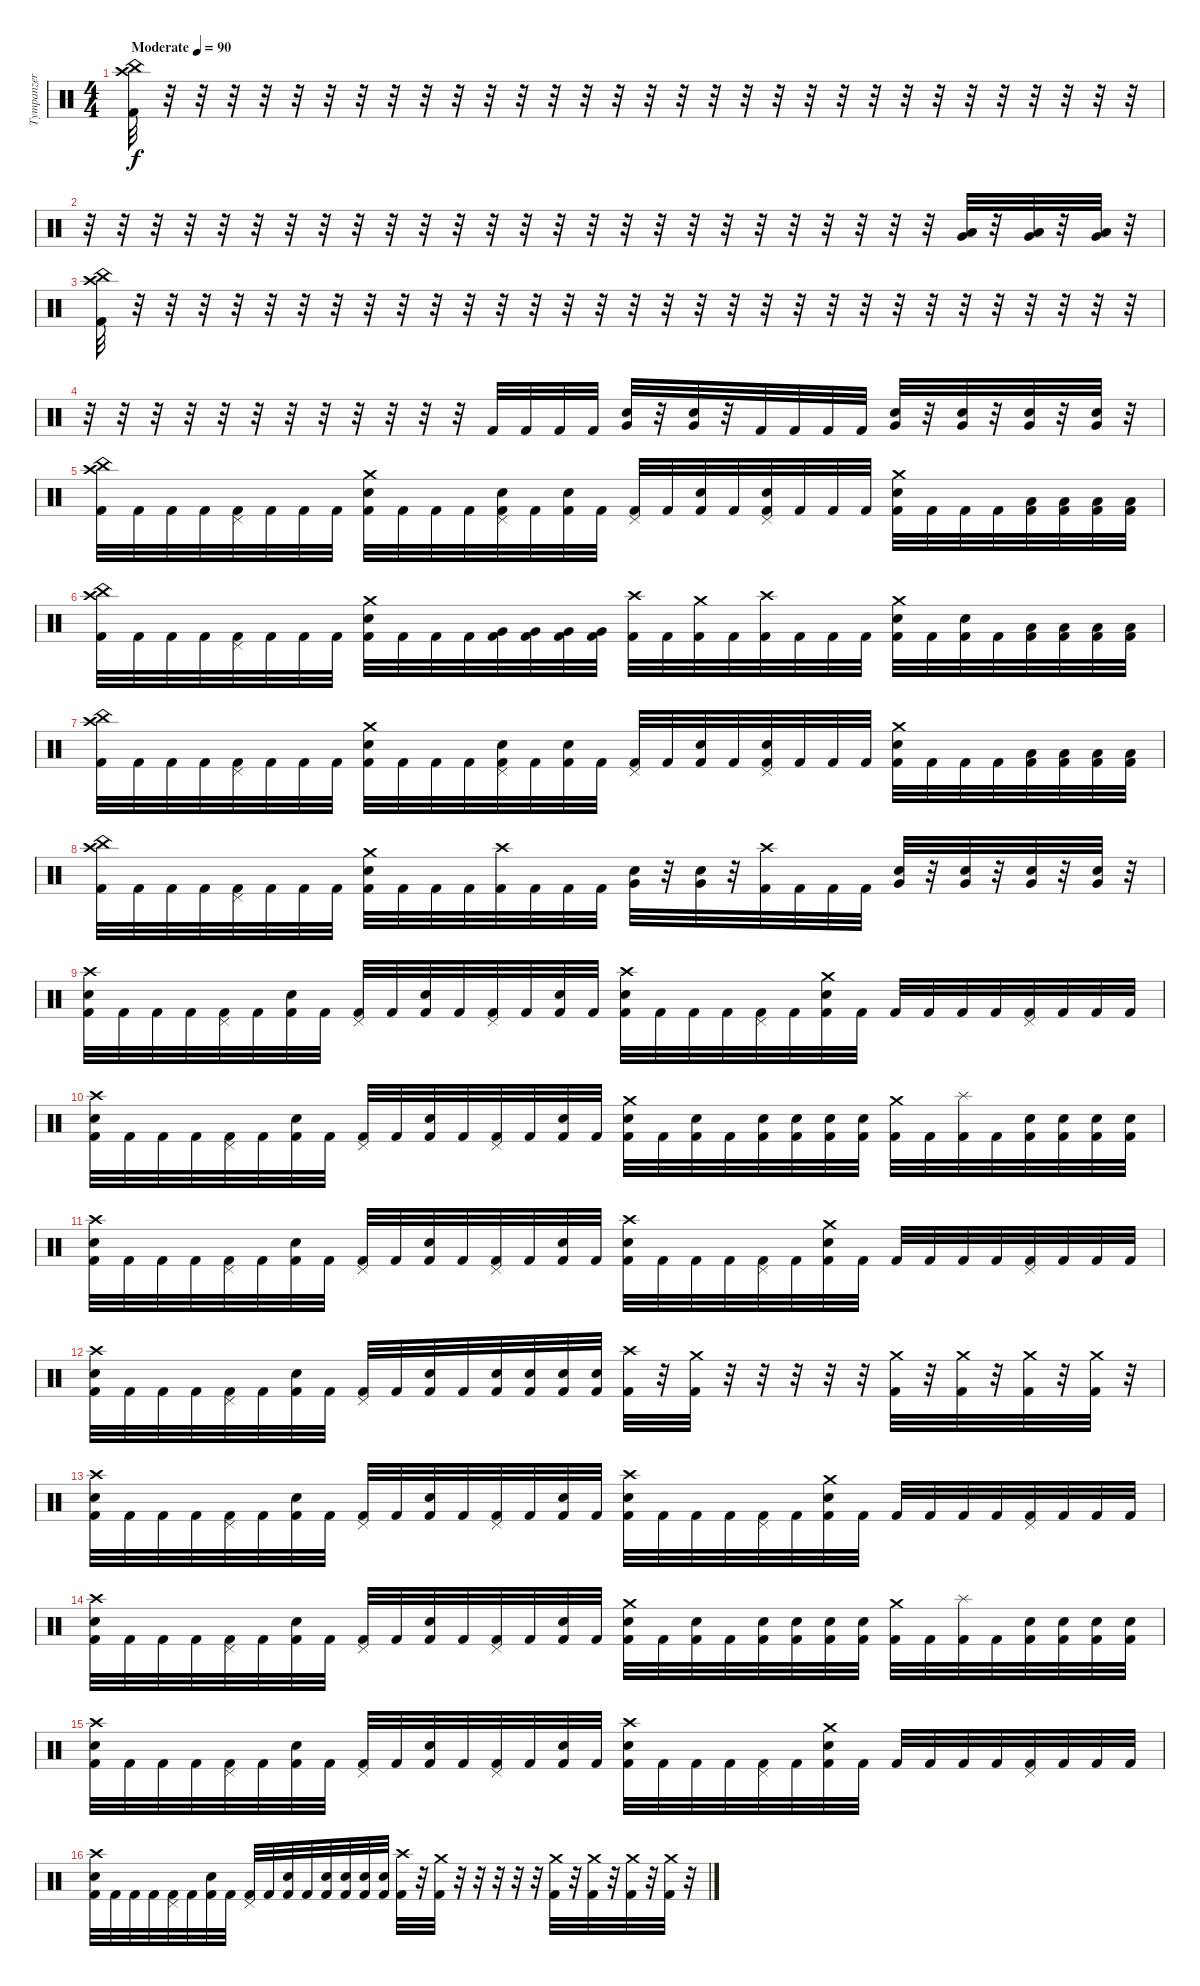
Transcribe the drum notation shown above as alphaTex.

\track ("Tympanzer" "Tympanzer") {instrument percussion}
\staff {score}
\articulation defaults
\ts (4 4)
\tempo (90 "Moderate")
\clef neutral
\ks c
("China (hit)" "Crash high (hit)" "Kick (hit) 2").32{dy f} r.32 r.32 r.32 r.32 r.32 r.32 r.32 r.32 r.32 r.32 r.32 r.32 r.32 r.32 r.32 r.32 r.32 r.32 r.32 r.32 r.32 r.32 r.32 r.32 r.32 r.32 r.32 r.32 r.32 r.32 r.32 |
r.32 r.32 r.32 r.32 r.32 r.32 r.32 r.32 r.32 r.32 r.32 r.32 r.32 r.32 r.32 r.32 r.32 r.32 r.32 r.32 r.32 r.32 r.32 r.32 r.32 r.32 ("Low Floor Tom (hit)" "Very Low Tom (hit)").32 r.32 ("Low Floor Tom (hit)" "Very Low Tom (hit)").32 r.32 ("Low Floor Tom (hit)" "Very Low Tom (hit)").32 r.32 |
("China (hit)" "Crash high (hit)" "Kick (hit) 2").32 r.32 r.32 r.32 r.32 r.32 r.32 r.32 r.32 r.32 r.32 r.32 r.32 r.32 r.32 r.32 r.32 r.32 r.32 r.32 r.32 r.32 r.32 r.32 r.32 r.32 r.32 r.32 r.32 r.32 r.32 r.32 |
r.32 r.32 r.32 r.32 r.32 r.32 r.32 r.32 r.32 r.32 r.32 r.32 "Kick (hit) 2".32 "Kick (hit) 2".32 "Kick (hit) 2".32 "Kick (hit) 2".32 ("Electric Snare (hit)" "Very Low Tom (hit)").32 r.32 ("Electric Snare (hit)" "Very Low Tom (hit)").32 r.32 "Kick (hit) 2".32 "Kick (hit) 2".32 "Kick (hit) 2".32 "Kick (hit) 2".32 ("Electric Snare (hit)" "Very Low Tom (hit)").32 r.32 ("Electric Snare (hit)" "Very Low Tom (hit)").32 r.32 ("Electric Snare (hit)" "Very Low Tom (hit)").32 r.32 ("Electric Snare (hit)" "Very Low Tom (hit)").32 r.32 |
("China (hit)" "Crash high (hit)" "Kick (hit) 2").32 "Kick (hit) 2".32 "Kick (hit) 2".32 "Kick (hit) 2".32 ("Pedal Hi-Hat (hit)" "Kick (hit) 2").32 "Kick (hit) 2".32 "Kick (hit) 2".32 "Kick (hit) 2".32 ("Crash medium (hit)" "Electric Snare (hit)" "Kick (hit) 2").32 "Kick (hit) 2".32 "Kick (hit) 2".32 "Kick (hit) 2".32 ("Pedal Hi-Hat (hit)" "Electric Snare (hit)" "Kick (hit) 2").32 "Kick (hit) 2".32 ("Electric Snare (hit)" "Kick (hit) 2").32 "Kick (hit) 2".32 ("Pedal Hi-Hat (hit)" "Kick (hit) 2").32 "Kick (hit) 2".32 ("Electric Snare (hit)" "Kick (hit) 2").32 "Kick (hit) 2".32 ("Pedal Hi-Hat (hit)" "Electric Snare (hit)" "Kick (hit) 2").32 "Kick (hit) 2".32 "Kick (hit) 2".32 "Kick (hit) 2".32 ("Crash medium (hit)" "Electric Snare (hit)" "Kick (hit) 2").32 "Kick (hit) 2".32 "Kick (hit) 2".32 "Kick (hit) 2".32 ("Low Tom (hit)" "Kick (hit) 2").32 ("Low Tom (hit)" "Kick (hit) 2").32 ("Low Tom (hit)" "Kick (hit) 2").32 ("Low Tom (hit)" "Kick (hit) 2").32 |
("China (hit)" "Crash high (hit)" "Kick (hit) 2").32 "Kick (hit) 2".32 "Kick (hit) 2".32 "Kick (hit) 2".32 ("Pedal Hi-Hat (hit)" "Kick (hit) 2").32 "Kick (hit) 2".32 "Kick (hit) 2".32 "Kick (hit) 2".32 ("Crash medium (hit)" "Electric Snare (hit)" "Kick (hit) 2").32 "Kick (hit) 2".32 "Kick (hit) 2".32 "Kick (hit) 2".32 ("Very Low Tom (hit)" "Kick (hit) 2").32 ("Very Low Tom (hit)" "Kick (hit) 2").32 ("Very Low Tom (hit)" "Kick (hit) 2").32 ("Very Low Tom (hit)" "Kick (hit) 2").32 ("Crash high (hit)" "Kick (hit) 2").32 "Kick (hit) 2".32 ("Crash medium (hit)" "Kick (hit) 2").32 "Kick (hit) 2".32 ("Crash high (hit)" "Kick (hit) 2").32 "Kick (hit) 2".32 "Kick (hit) 2".32 "Kick (hit) 2".32 ("Crash medium (hit)" "Electric Snare (hit)" "Kick (hit) 2").32 "Kick (hit) 2".32 ("Electric Snare (hit)" "Kick (hit) 2").32 "Kick (hit) 2".32 ("Low Floor Tom (hit)" "Kick (hit) 2").32 ("Low Floor Tom (hit)" "Kick (hit) 2").32 ("Low Floor Tom (hit)" "Kick (hit) 2").32 ("Low Floor Tom (hit)" "Kick (hit) 2").32 |
("China (hit)" "Crash high (hit)" "Kick (hit) 2").32 "Kick (hit) 2".32 "Kick (hit) 2".32 "Kick (hit) 2".32 ("Pedal Hi-Hat (hit)" "Kick (hit) 2").32 "Kick (hit) 2".32 "Kick (hit) 2".32 "Kick (hit) 2".32 ("Crash medium (hit)" "Electric Snare (hit)" "Kick (hit) 2").32 "Kick (hit) 2".32 "Kick (hit) 2".32 "Kick (hit) 2".32 ("Pedal Hi-Hat (hit)" "Electric Snare (hit)" "Kick (hit) 2").32 "Kick (hit) 2".32 ("Electric Snare (hit)" "Kick (hit) 2").32 "Kick (hit) 2".32 ("Pedal Hi-Hat (hit)" "Kick (hit) 2").32 "Kick (hit) 2".32 ("Electric Snare (hit)" "Kick (hit) 2").32 "Kick (hit) 2".32 ("Pedal Hi-Hat (hit)" "Electric Snare (hit)" "Kick (hit) 2").32 "Kick (hit) 2".32 "Kick (hit) 2".32 "Kick (hit) 2".32 ("Crash medium (hit)" "Electric Snare (hit)" "Kick (hit) 2").32 "Kick (hit) 2".32 "Kick (hit) 2".32 "Kick (hit) 2".32 ("Low Tom (hit)" "Kick (hit) 2").32 ("Low Tom (hit)" "Kick (hit) 2").32 ("Low Tom (hit)" "Kick (hit) 2").32 ("Low Tom (hit)" "Kick (hit) 2").32 |
("China (hit)" "Crash high (hit)" "Kick (hit) 2").32 "Kick (hit) 2".32 "Kick (hit) 2".32 "Kick (hit) 2".32 ("Pedal Hi-Hat (hit)" "Kick (hit) 2").32 "Kick (hit) 2".32 "Kick (hit) 2".32 "Kick (hit) 2".32 ("Crash medium (hit)" "Electric Snare (hit)" "Kick (hit) 2").32 "Kick (hit) 2".32 "Kick (hit) 2".32 "Kick (hit) 2".32 ("Crash high (hit)" "Kick (hit) 2").32 "Kick (hit) 2".32 "Kick (hit) 2".32 "Kick (hit) 2".32 ("Electric Snare (hit)" "Very Low Tom (hit)").32 r.32 ("Electric Snare (hit)" "Very Low Tom (hit)").32 r.32 ("Crash high (hit)" "Kick (hit) 2").32 "Kick (hit) 2".32 "Kick (hit) 2".32 "Kick (hit) 2".32 ("Electric Snare (hit)" "Very Low Tom (hit)").32 r.32 ("Electric Snare (hit)" "Very Low Tom (hit)").32 r.32 ("Electric Snare (hit)" "Very Low Tom (hit)").32 r.32 ("Electric Snare (hit)" "Very Low Tom (hit)").32 r.32 |
("Crash high (hit)" "Electric Snare (hit)" "Kick (hit) 2").32 "Kick (hit) 2".32 "Kick (hit) 2".32 "Kick (hit) 2".32 ("Pedal Hi-Hat (hit)" "Kick (hit) 2").32 "Kick (hit) 2".32 ("Electric Snare (hit)" "Kick (hit) 2").32 "Kick (hit) 2".32 ("Pedal Hi-Hat (hit)" "Kick (hit) 2").32 "Kick (hit) 2".32 ("Electric Snare (hit)" "Kick (hit) 2").32 "Kick (hit) 2".32 ("Pedal Hi-Hat (hit)" "Kick (hit) 2").32 "Kick (hit) 2".32 ("Electric Snare (hit)" "Kick (hit) 2").32 "Kick (hit) 2".32 ("Crash high (hit)" "Electric Snare (hit)" "Kick (hit) 2").32 "Kick (hit) 2".32 "Kick (hit) 2".32 "Kick (hit) 2".32 ("Pedal Hi-Hat (hit)" "Kick (hit) 2").32 "Kick (hit) 2".32 ("Crash medium (hit)" "Electric Snare (hit)" "Kick (hit) 2").32 "Kick (hit) 2".32 "Kick (hit) 2".32 "Kick (hit) 2".32 "Kick (hit) 2".32 "Kick (hit) 2".32 ("Pedal Hi-Hat (hit)" "Kick (hit) 2").32 "Kick (hit) 2".32 "Kick (hit) 2".32 "Kick (hit) 2".32 |
("Crash high (hit)" "Electric Snare (hit)" "Kick (hit) 2").32 "Kick (hit) 2".32 "Kick (hit) 2".32 "Kick (hit) 2".32 ("Pedal Hi-Hat (hit)" "Kick (hit) 2").32 "Kick (hit) 2".32 ("Electric Snare (hit)" "Kick (hit) 2").32 "Kick (hit) 2".32 ("Pedal Hi-Hat (hit)" "Kick (hit) 2").32 "Kick (hit) 2".32 ("Electric Snare (hit)" "Kick (hit) 2").32 "Kick (hit) 2".32 ("Pedal Hi-Hat (hit)" "Kick (hit) 2").32 "Kick (hit) 2".32 ("Electric Snare (hit)" "Kick (hit) 2").32 "Kick (hit) 2".32 ("Crash medium (hit)" "Electric Snare (hit)" "Kick (hit) 2").32 "Kick (hit) 2".32 ("Electric Snare (hit)" "Kick (hit) 2").32 "Kick (hit) 2".32 ("Electric Snare (hit)" "Kick (hit) 2").32 ("Electric Snare (hit)" "Kick (hit) 2").32 ("Electric Snare (hit)" "Kick (hit) 2").32 ("Electric Snare (hit)" "Kick (hit) 2").32 ("Crash medium (hit)" "Kick (hit) 2").32 "Kick (hit) 2".32 ("Splash (hit)" "Kick (hit) 2").32 "Kick (hit) 2".32 ("Electric Snare (hit)" "Kick (hit) 2").32 ("Electric Snare (hit)" "Kick (hit) 2").32 ("Electric Snare (hit)" "Kick (hit) 2").32 ("Electric Snare (hit)" "Kick (hit) 2").32 |
("Crash high (hit)" "Electric Snare (hit)" "Kick (hit) 2").32 "Kick (hit) 2".32 "Kick (hit) 2".32 "Kick (hit) 2".32 ("Pedal Hi-Hat (hit)" "Kick (hit) 2").32 "Kick (hit) 2".32 ("Electric Snare (hit)" "Kick (hit) 2").32 "Kick (hit) 2".32 ("Pedal Hi-Hat (hit)" "Kick (hit) 2").32 "Kick (hit) 2".32 ("Electric Snare (hit)" "Kick (hit) 2").32 "Kick (hit) 2".32 ("Pedal Hi-Hat (hit)" "Kick (hit) 2").32 "Kick (hit) 2".32 ("Electric Snare (hit)" "Kick (hit) 2").32 "Kick (hit) 2".32 ("Crash high (hit)" "Electric Snare (hit)" "Kick (hit) 2").32 "Kick (hit) 2".32 "Kick (hit) 2".32 "Kick (hit) 2".32 ("Pedal Hi-Hat (hit)" "Kick (hit) 2").32 "Kick (hit) 2".32 ("Crash medium (hit)" "Electric Snare (hit)" "Kick (hit) 2").32 "Kick (hit) 2".32 "Kick (hit) 2".32 "Kick (hit) 2".32 "Kick (hit) 2".32 "Kick (hit) 2".32 ("Pedal Hi-Hat (hit)" "Kick (hit) 2").32 "Kick (hit) 2".32 "Kick (hit) 2".32 "Kick (hit) 2".32 |
("Crash high (hit)" "Electric Snare (hit)" "Kick (hit) 2").32 "Kick (hit) 2".32 "Kick (hit) 2".32 "Kick (hit) 2".32 ("Pedal Hi-Hat (hit)" "Kick (hit) 2").32 "Kick (hit) 2".32 ("Electric Snare (hit)" "Kick (hit) 2").32 "Kick (hit) 2".32 ("Pedal Hi-Hat (hit)" "Kick (hit) 2").32 "Kick (hit) 2".32 ("Electric Snare (hit)" "Kick (hit) 2").32 "Kick (hit) 2".32 ("Electric Snare (hit)" "Kick (hit) 2").32 ("Electric Snare (hit)" "Kick (hit) 2").32 ("Electric Snare (hit)" "Kick (hit) 2").32 ("Electric Snare (hit)" "Kick (hit) 2").32 ("Crash high (hit)" "Kick (hit) 2").32 r.32 ("Crash medium (hit)" "Kick (hit) 2").32 r.32 r.32 r.32 r.32 r.32 ("Crash medium (hit)" "Kick (hit) 2").32 r.32 ("Crash medium (hit)" "Kick (hit) 2").32 r.32 ("Crash medium (hit)" "Kick (hit) 2").32 r.32 ("Crash medium (hit)" "Kick (hit) 2").32 r.32 |
("Crash high (hit)" "Electric Snare (hit)" "Kick (hit) 2").32 "Kick (hit) 2".32 "Kick (hit) 2".32 "Kick (hit) 2".32 ("Pedal Hi-Hat (hit)" "Kick (hit) 2").32 "Kick (hit) 2".32 ("Electric Snare (hit)" "Kick (hit) 2").32 "Kick (hit) 2".32 ("Pedal Hi-Hat (hit)" "Kick (hit) 2").32 "Kick (hit) 2".32 ("Electric Snare (hit)" "Kick (hit) 2").32 "Kick (hit) 2".32 ("Pedal Hi-Hat (hit)" "Kick (hit) 2").32 "Kick (hit) 2".32 ("Electric Snare (hit)" "Kick (hit) 2").32 "Kick (hit) 2".32 ("Crash high (hit)" "Electric Snare (hit)" "Kick (hit) 2").32 "Kick (hit) 2".32 "Kick (hit) 2".32 "Kick (hit) 2".32 ("Pedal Hi-Hat (hit)" "Kick (hit) 2").32 "Kick (hit) 2".32 ("Crash medium (hit)" "Electric Snare (hit)" "Kick (hit) 2").32 "Kick (hit) 2".32 "Kick (hit) 2".32 "Kick (hit) 2".32 "Kick (hit) 2".32 "Kick (hit) 2".32 ("Pedal Hi-Hat (hit)" "Kick (hit) 2").32 "Kick (hit) 2".32 "Kick (hit) 2".32 "Kick (hit) 2".32 |
("Crash high (hit)" "Electric Snare (hit)" "Kick (hit) 2").32 "Kick (hit) 2".32 "Kick (hit) 2".32 "Kick (hit) 2".32 ("Pedal Hi-Hat (hit)" "Kick (hit) 2").32 "Kick (hit) 2".32 ("Electric Snare (hit)" "Kick (hit) 2").32 "Kick (hit) 2".32 ("Pedal Hi-Hat (hit)" "Kick (hit) 2").32 "Kick (hit) 2".32 ("Electric Snare (hit)" "Kick (hit) 2").32 "Kick (hit) 2".32 ("Pedal Hi-Hat (hit)" "Kick (hit) 2").32 "Kick (hit) 2".32 ("Electric Snare (hit)" "Kick (hit) 2").32 "Kick (hit) 2".32 ("Crash medium (hit)" "Electric Snare (hit)" "Kick (hit) 2").32 "Kick (hit) 2".32 ("Electric Snare (hit)" "Kick (hit) 2").32 "Kick (hit) 2".32 ("Electric Snare (hit)" "Kick (hit) 2").32 ("Electric Snare (hit)" "Kick (hit) 2").32 ("Electric Snare (hit)" "Kick (hit) 2").32 ("Electric Snare (hit)" "Kick (hit) 2").32 ("Crash medium (hit)" "Kick (hit) 2").32 "Kick (hit) 2".32 ("Splash (hit)" "Kick (hit) 2").32 "Kick (hit) 2".32 ("Electric Snare (hit)" "Kick (hit) 2").32 ("Electric Snare (hit)" "Kick (hit) 2").32 ("Electric Snare (hit)" "Kick (hit) 2").32 ("Electric Snare (hit)" "Kick (hit) 2").32 |
("Crash high (hit)" "Electric Snare (hit)" "Kick (hit) 2").32 "Kick (hit) 2".32 "Kick (hit) 2".32 "Kick (hit) 2".32 ("Pedal Hi-Hat (hit)" "Kick (hit) 2").32 "Kick (hit) 2".32 ("Electric Snare (hit)" "Kick (hit) 2").32 "Kick (hit) 2".32 ("Pedal Hi-Hat (hit)" "Kick (hit) 2").32 "Kick (hit) 2".32 ("Electric Snare (hit)" "Kick (hit) 2").32 "Kick (hit) 2".32 ("Pedal Hi-Hat (hit)" "Kick (hit) 2").32 "Kick (hit) 2".32 ("Electric Snare (hit)" "Kick (hit) 2").32 "Kick (hit) 2".32 ("Crash high (hit)" "Electric Snare (hit)" "Kick (hit) 2").32 "Kick (hit) 2".32 "Kick (hit) 2".32 "Kick (hit) 2".32 ("Pedal Hi-Hat (hit)" "Kick (hit) 2").32 "Kick (hit) 2".32 ("Crash medium (hit)" "Electric Snare (hit)" "Kick (hit) 2").32 "Kick (hit) 2".32 "Kick (hit) 2".32 "Kick (hit) 2".32 "Kick (hit) 2".32 "Kick (hit) 2".32 ("Pedal Hi-Hat (hit)" "Kick (hit) 2").32 "Kick (hit) 2".32 "Kick (hit) 2".32 "Kick (hit) 2".32 |
("Crash high (hit)" "Electric Snare (hit)" "Kick (hit) 2").32 "Kick (hit) 2".32 "Kick (hit) 2".32 "Kick (hit) 2".32 ("Pedal Hi-Hat (hit)" "Kick (hit) 2").32 "Kick (hit) 2".32 ("Electric Snare (hit)" "Kick (hit) 2").32 "Kick (hit) 2".32 ("Pedal Hi-Hat (hit)" "Kick (hit) 2").32 "Kick (hit) 2".32 ("Electric Snare (hit)" "Kick (hit) 2").32 "Kick (hit) 2".32 ("Electric Snare (hit)" "Kick (hit) 2").32 ("Electric Snare (hit)" "Kick (hit) 2").32 ("Electric Snare (hit)" "Kick (hit) 2").32 ("Electric Snare (hit)" "Kick (hit) 2").32 ("Crash high (hit)" "Kick (hit) 2").32 r.32 ("Crash medium (hit)" "Kick (hit) 2").32 r.32 r.32 r.32 r.32 r.32 ("Crash medium (hit)" "Kick (hit) 2").32 r.32 ("Crash medium (hit)" "Kick (hit) 2").32 r.32 ("Crash medium (hit)" "Kick (hit) 2").32 r.32 ("Crash medium (hit)" "Kick (hit) 2").32 r.32
